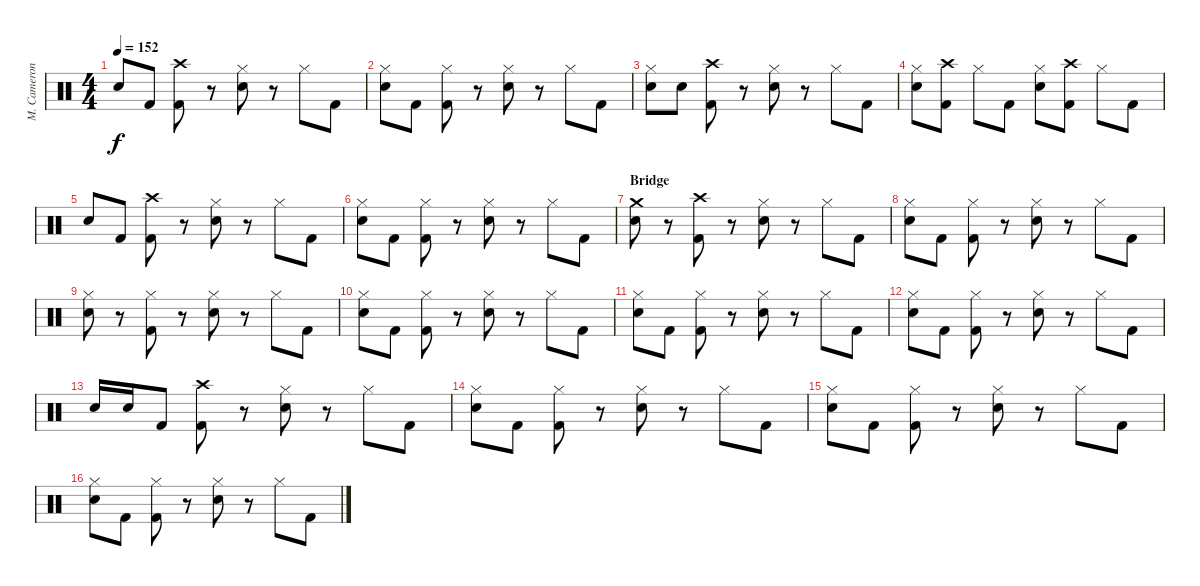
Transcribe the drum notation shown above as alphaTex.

\track ("M. Cameron" "M. Cameron") {instrument percussion}
\staff {score}
\articulation defaults
\ts (4 4)
\tempo 152
\clef neutral
\ks c "Snare (hit) 2".8{dy f} "Kick (hit) 2".8
("Crash high (hit)" "Kick (hit) 2").8 r.8 ("Hi-Hat (closed)" "Snare (hit) 2").8 r.8 "Hi-Hat (closed)".8 "Kick (hit) 2".8 |
("Hi-Hat (closed)" "Snare (hit) 2").8 "Kick (hit) 2".8 ("Hi-Hat (closed)" "Kick (hit) 2").8 r.8 ("Hi-Hat (closed)" "Snare (hit) 2").8 r.8 "Hi-Hat (closed)".8 "Kick (hit) 2".8 |
("Hi-Hat (closed)" "Snare (hit) 2").8 "Snare (hit) 2".8 ("Crash high (hit)" "Kick (hit) 2").8 r.8 ("Hi-Hat (closed)" "Snare (hit) 2").8 r.8 "Hi-Hat (closed)".8 "Kick (hit) 2".8 |
("Hi-Hat (closed)" "Snare (hit) 2").8 ("Crash high (hit)" "Kick (hit) 2").8 "Hi-Hat (closed)".8 "Kick (hit) 2".8 ("Hi-Hat (closed)" "Snare (hit) 2").8 ("Crash high (hit)" "Kick (hit) 2").8 "Hi-Hat (closed)".8 "Kick (hit) 2".8 |
"Snare (hit) 2".8 "Kick (hit) 2".8 ("Crash high (hit)" "Kick (hit) 2").8 r.8 ("Hi-Hat (closed)" "Snare (hit) 2").8 r.8 "Hi-Hat (closed)".8 "Kick (hit) 2".8 |
("Hi-Hat (closed)" "Snare (hit) 2").8 "Kick (hit) 2".8 ("Hi-Hat (closed)" "Kick (hit) 2").8 r.8 ("Hi-Hat (closed)" "Snare (hit) 2").8 r.8 "Hi-Hat (closed)".8 "Kick (hit) 2".8 |
\section ("" "Bridge")
("Crash medium (hit)" "Snare (hit) 2").8 r.8 ("Crash high (hit)" "Kick (hit) 2").8 r.8 ("Hi-Hat (closed)" "Snare (hit) 2").8 r.8 "Hi-Hat (closed)".8 "Kick (hit) 2".8 |
("Hi-Hat (closed)" "Snare (hit) 2").8 "Kick (hit) 2".8 ("Hi-Hat (closed)" "Kick (hit) 2").8 r.8 ("Hi-Hat (closed)" "Snare (hit) 2").8 r.8 "Hi-Hat (closed)".8 "Kick (hit) 2".8 |
("Hi-Hat (closed)" "Snare (hit) 2").8 r.8 ("Hi-Hat (closed)" "Kick (hit) 2").8 r.8 ("Hi-Hat (closed)" "Snare (hit) 2").8 r.8 "Hi-Hat (closed)".8 "Kick (hit) 2".8 |
("Hi-Hat (closed)" "Snare (hit) 2").8 "Kick (hit) 2".8 ("Hi-Hat (closed)" "Kick (hit) 2").8 r.8 ("Hi-Hat (closed)" "Snare (hit) 2").8 r.8 "Hi-Hat (closed)".8 "Kick (hit) 2".8 |
("Hi-Hat (closed)" "Snare (hit) 2").8 "Kick (hit) 2".8 ("Hi-Hat (closed)" "Kick (hit) 2").8 r.8 ("Hi-Hat (closed)" "Snare (hit) 2").8 r.8 "Hi-Hat (closed)".8 "Kick (hit) 2".8 |
("Hi-Hat (closed)" "Snare (hit) 2").8 "Kick (hit) 2".8 ("Hi-Hat (closed)" "Kick (hit) 2").8 r.8 ("Hi-Hat (closed)" "Snare (hit) 2").8 r.8 "Hi-Hat (closed)".8 "Kick (hit) 2".8 |
"Snare (hit) 2".16 "Snare (hit) 2".16 "Kick (hit) 2".8 ("Crash high (hit)" "Kick (hit) 2").8 r.8 ("Hi-Hat (closed)" "Snare (hit) 2").8 r.8 "Hi-Hat (closed)".8 "Kick (hit) 2".8 |
("Hi-Hat (closed)" "Snare (hit) 2").8 "Kick (hit) 2".8 ("Hi-Hat (closed)" "Kick (hit) 2").8 r.8 ("Hi-Hat (closed)" "Snare (hit) 2").8 r.8 "Hi-Hat (closed)".8 "Kick (hit) 2".8 |
("Hi-Hat (closed)" "Snare (hit) 2").8 "Kick (hit) 2".8 ("Hi-Hat (closed)" "Kick (hit) 2").8 r.8 ("Hi-Hat (closed)" "Snare (hit) 2").8 r.8 "Hi-Hat (closed)".8 "Kick (hit) 2".8 |
("Hi-Hat (closed)" "Snare (hit) 2").8 "Kick (hit) 2".8 ("Hi-Hat (closed)" "Kick (hit) 2").8 r.8 ("Hi-Hat (closed)" "Snare (hit) 2").8 r.8 "Hi-Hat (closed)".8 "Kick (hit) 2".8
